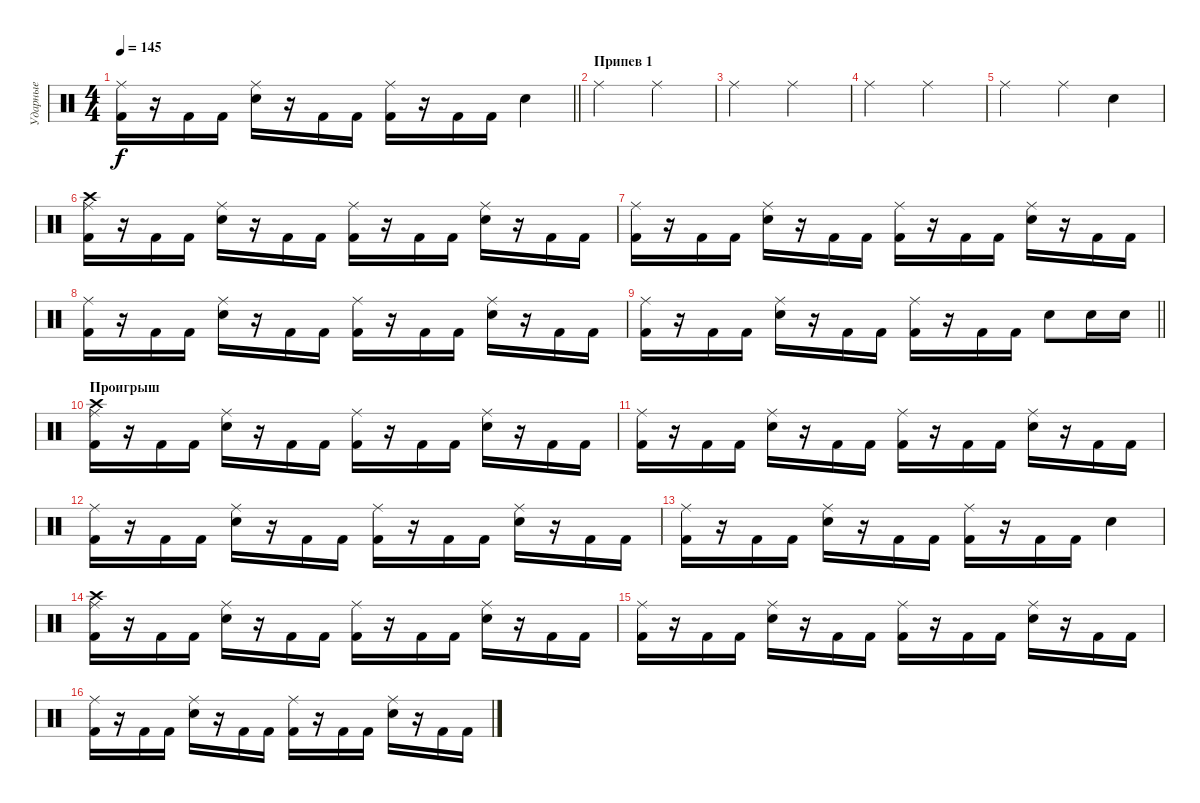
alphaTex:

\track ("Ударные" "Ударные") {instrument percussion}
\staff {score}
\articulation defaults
\ts (4 4)
\tempo 145
\clef neutral
\barLineRight lightlight
\ks c
("Ride (middle)" "Kick (hit) 2").16{dy f} r.16 "Kick (hit) 2".16 "Kick (hit) 2".16 ("Ride (middle)" "Snare (hit) 2").16 r.16 "Kick (hit) 2".16 "Kick (hit) 2".16 ("Ride (middle)" "Kick (hit) 2").16 r.16 "Kick (hit) 2".16 "Kick (hit) 2".16 "Snare (hit) 2".4 |
\section ("" "Припев 1")
"Ride (middle)".2 "Ride (middle)".2 |
"Ride (middle)".2 "Ride (middle)".2 |
"Ride (middle)".2 "Ride (middle)".2 |
"Ride (middle)".2 "Ride (middle)".4 "Snare (hit) 2".4 |
("Ride (middle)" "Kick (hit) 2" "Crash high (hit)").16 r.16 "Kick (hit) 2".16 "Kick (hit) 2".16 ("Ride (middle)" "Snare (hit) 2").16 r.16 "Kick (hit) 2".16 "Kick (hit) 2".16 ("Ride (middle)" "Kick (hit) 2").16 r.16 "Kick (hit) 2".16 "Kick (hit) 2".16 ("Ride (middle)" "Snare (hit) 2").16 r.16 "Kick (hit) 2".16 "Kick (hit) 2".16 |
("Ride (middle)" "Kick (hit) 2").16 r.16 "Kick (hit) 2".16 "Kick (hit) 2".16 ("Ride (middle)" "Snare (hit) 2").16 r.16 "Kick (hit) 2".16 "Kick (hit) 2".16 ("Ride (middle)" "Kick (hit) 2").16 r.16 "Kick (hit) 2".16 "Kick (hit) 2".16 ("Ride (middle)" "Snare (hit) 2").16 r.16 "Kick (hit) 2".16 "Kick (hit) 2".16 |
("Ride (middle)" "Kick (hit) 2").16 r.16 "Kick (hit) 2".16 "Kick (hit) 2".16 ("Ride (middle)" "Snare (hit) 2").16 r.16 "Kick (hit) 2".16 "Kick (hit) 2".16 ("Ride (middle)" "Kick (hit) 2").16 r.16 "Kick (hit) 2".16 "Kick (hit) 2".16 ("Ride (middle)" "Snare (hit) 2").16 r.16 "Kick (hit) 2".16 "Kick (hit) 2".16 |
\barLineRight lightlight
("Ride (middle)" "Kick (hit) 2").16 r.16 "Kick (hit) 2".16 "Kick (hit) 2".16 ("Ride (middle)" "Snare (hit) 2").16 r.16 "Kick (hit) 2".16 "Kick (hit) 2".16 ("Ride (middle)" "Kick (hit) 2").16 r.16 "Kick (hit) 2".16 "Kick (hit) 2".16 "Snare (hit) 2".8 "Snare (hit) 2".16 "Snare (hit) 2".16 |
\section ("" "Проигрыш")
("Ride (middle)" "Kick (hit) 2" "Crash high (hit)").16 r.16 "Kick (hit) 2".16 "Kick (hit) 2".16 ("Ride (middle)" "Snare (hit) 2").16 r.16 "Kick (hit) 2".16 "Kick (hit) 2".16 ("Ride (middle)" "Kick (hit) 2").16 r.16 "Kick (hit) 2".16 "Kick (hit) 2".16 ("Ride (middle)" "Snare (hit) 2").16 r.16 "Kick (hit) 2".16 "Kick (hit) 2".16 |
("Ride (middle)" "Kick (hit) 2").16 r.16 "Kick (hit) 2".16 "Kick (hit) 2".16 ("Ride (middle)" "Snare (hit) 2").16 r.16 "Kick (hit) 2".16 "Kick (hit) 2".16 ("Ride (middle)" "Kick (hit) 2").16 r.16 "Kick (hit) 2".16 "Kick (hit) 2".16 ("Ride (middle)" "Snare (hit) 2").16 r.16 "Kick (hit) 2".16 "Kick (hit) 2".16 |
("Ride (middle)" "Kick (hit) 2").16 r.16 "Kick (hit) 2".16 "Kick (hit) 2".16 ("Ride (middle)" "Snare (hit) 2").16 r.16 "Kick (hit) 2".16 "Kick (hit) 2".16 ("Ride (middle)" "Kick (hit) 2").16 r.16 "Kick (hit) 2".16 "Kick (hit) 2".16 ("Ride (middle)" "Snare (hit) 2").16 r.16 "Kick (hit) 2".16 "Kick (hit) 2".16 |
("Ride (middle)" "Kick (hit) 2").16 r.16 "Kick (hit) 2".16 "Kick (hit) 2".16 ("Ride (middle)" "Snare (hit) 2").16 r.16 "Kick (hit) 2".16 "Kick (hit) 2".16 ("Ride (middle)" "Kick (hit) 2").16 r.16 "Kick (hit) 2".16 "Kick (hit) 2".16 "Snare (hit) 2".4 |
("Ride (middle)" "Kick (hit) 2" "Crash high (hit)").16 r.16 "Kick (hit) 2".16 "Kick (hit) 2".16 ("Ride (middle)" "Snare (hit) 2").16 r.16 "Kick (hit) 2".16 "Kick (hit) 2".16 ("Ride (middle)" "Kick (hit) 2").16 r.16 "Kick (hit) 2".16 "Kick (hit) 2".16 ("Ride (middle)" "Snare (hit) 2").16 r.16 "Kick (hit) 2".16 "Kick (hit) 2".16 |
("Ride (middle)" "Kick (hit) 2").16 r.16 "Kick (hit) 2".16 "Kick (hit) 2".16 ("Ride (middle)" "Snare (hit) 2").16 r.16 "Kick (hit) 2".16 "Kick (hit) 2".16 ("Ride (middle)" "Kick (hit) 2").16 r.16 "Kick (hit) 2".16 "Kick (hit) 2".16 ("Ride (middle)" "Snare (hit) 2").16 r.16 "Kick (hit) 2".16 "Kick (hit) 2".16 |
("Ride (middle)" "Kick (hit) 2").16 r.16 "Kick (hit) 2".16 "Kick (hit) 2".16 ("Ride (middle)" "Snare (hit) 2").16 r.16 "Kick (hit) 2".16 "Kick (hit) 2".16 ("Ride (middle)" "Kick (hit) 2").16 r.16 "Kick (hit) 2".16 "Kick (hit) 2".16 ("Ride (middle)" "Snare (hit) 2").16 r.16 "Kick (hit) 2".16 "Kick (hit) 2".16
